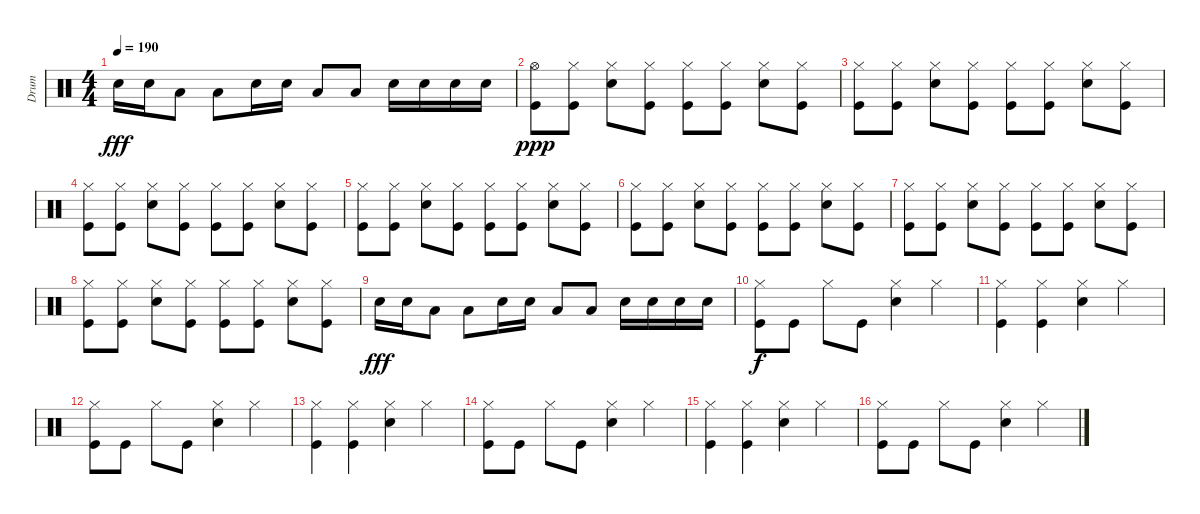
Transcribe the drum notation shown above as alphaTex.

\track ("Drum" "Drum") {instrument percussion}
\staff {score}
\articulation defaults
\ts (4 4)
\tempo 190
\clef neutral
\ks c "Snare (hit) 2".16{dy fff} "Snare (hit) 2".16 "Low Tom (hit)".8 "Low Tom (hit)".8 "Snare (hit) 2".16 "Snare (hit) 2".16 "Low Tom (hit)".8 "Low Tom (hit)".8 "Snare (hit) 2".16 "Snare (hit) 2".16 "Snare (hit) 2".16 "Snare (hit) 2".16
|
("Hi-Hat (open)" "Kick (hit)").8{dy ppp} ("Hi-Hat (closed)" "Kick (hit)").8 ("Hi-Hat (closed)" "Snare (hit) 2").8 ("Hi-Hat (closed)" "Kick (hit)").8 ("Hi-Hat (closed)" "Kick (hit)").8 ("Hi-Hat (closed)" "Kick (hit)").8 ("Hi-Hat (closed)" "Snare (hit) 2").8 ("Hi-Hat (closed)" "Kick (hit)").8 |
("Hi-Hat (closed)" "Kick (hit)").8 ("Hi-Hat (closed)" "Kick (hit)").8 ("Hi-Hat (closed)" "Snare (hit) 2").8 ("Hi-Hat (closed)" "Kick (hit)").8 ("Hi-Hat (closed)" "Kick (hit)").8 ("Hi-Hat (closed)" "Kick (hit)").8 ("Hi-Hat (closed)" "Snare (hit) 2").8 ("Hi-Hat (closed)" "Kick (hit)").8 |
("Hi-Hat (closed)" "Kick (hit)").8 ("Hi-Hat (closed)" "Kick (hit)").8 ("Hi-Hat (closed)" "Snare (hit) 2").8 ("Hi-Hat (closed)" "Kick (hit)").8 ("Hi-Hat (closed)" "Kick (hit)").8 ("Hi-Hat (closed)" "Kick (hit)").8 ("Hi-Hat (closed)" "Snare (hit) 2").8 ("Hi-Hat (closed)" "Kick (hit)").8 |
("Hi-Hat (closed)" "Kick (hit)").8 ("Hi-Hat (closed)" "Kick (hit)").8 ("Hi-Hat (closed)" "Snare (hit) 2").8 ("Hi-Hat (closed)" "Kick (hit)").8 ("Hi-Hat (closed)" "Kick (hit)").8 ("Hi-Hat (closed)" "Kick (hit)").8 ("Hi-Hat (closed)" "Snare (hit) 2").8 ("Hi-Hat (closed)" "Kick (hit)").8 |
("Hi-Hat (closed)" "Kick (hit)").8 ("Hi-Hat (closed)" "Kick (hit)").8 ("Hi-Hat (closed)" "Snare (hit) 2").8 ("Hi-Hat (closed)" "Kick (hit)").8 ("Hi-Hat (closed)" "Kick (hit)").8 ("Hi-Hat (closed)" "Kick (hit)").8 ("Hi-Hat (closed)" "Snare (hit) 2").8 ("Hi-Hat (closed)" "Kick (hit)").8 |
("Hi-Hat (closed)" "Kick (hit)").8 ("Hi-Hat (closed)" "Kick (hit)").8 ("Hi-Hat (closed)" "Snare (hit) 2").8 ("Hi-Hat (closed)" "Kick (hit)").8 ("Hi-Hat (closed)" "Kick (hit)").8 ("Hi-Hat (closed)" "Kick (hit)").8 ("Hi-Hat (closed)" "Snare (hit) 2").8 ("Hi-Hat (closed)" "Kick (hit)").8 |
("Hi-Hat (closed)" "Kick (hit)").8 ("Hi-Hat (closed)" "Kick (hit)").8 ("Hi-Hat (closed)" "Snare (hit) 2").8 ("Hi-Hat (closed)" "Kick (hit)").8 ("Hi-Hat (closed)" "Kick (hit)").8 ("Hi-Hat (closed)" "Kick (hit)").8 ("Hi-Hat (closed)" "Snare (hit) 2").8 ("Hi-Hat (closed)" "Kick (hit)").8 |
"Snare (hit) 2".16{dy fff} "Snare (hit) 2".16 "Low Tom (hit)".8 "Low Tom (hit)".8 "Snare (hit) 2".16 "Snare (hit) 2".16 "Low Tom (hit)".8 "Low Tom (hit)".8 "Snare (hit) 2".16 "Snare (hit) 2".16 "Snare (hit) 2".16 "Snare (hit) 2".16 |
("Kick (hit)" "Hi-Hat (closed)").8{dy f} "Kick (hit)".8 "Hi-Hat (closed)".8 "Kick (hit)".8 ("Snare (hit) 2" "Hi-Hat (closed)").4 "Hi-Hat (closed)".4 |
("Kick (hit)" "Hi-Hat (closed)").4 ("Hi-Hat (closed)" "Kick (hit)").4 ("Hi-Hat (closed)" "Snare (hit) 2").4 "Hi-Hat (closed)".4 |
("Kick (hit)" "Hi-Hat (closed)").8 "Kick (hit)".8 "Hi-Hat (closed)".8 "Kick (hit)".8 ("Snare (hit) 2" "Hi-Hat (closed)").4 "Hi-Hat (closed)".4 |
("Kick (hit)" "Hi-Hat (closed)").4 ("Hi-Hat (closed)" "Kick (hit)").4 ("Hi-Hat (closed)" "Snare (hit) 2").4 "Hi-Hat (closed)".4 |
("Kick (hit)" "Hi-Hat (closed)").8 "Kick (hit)".8 "Hi-Hat (closed)".8 "Kick (hit)".8 ("Snare (hit) 2" "Hi-Hat (closed)").4 "Hi-Hat (closed)".4 |
("Kick (hit)" "Hi-Hat (closed)").4 ("Hi-Hat (closed)" "Kick (hit)").4 ("Hi-Hat (closed)" "Snare (hit) 2").4 "Hi-Hat (closed)".4 |
("Kick (hit)" "Hi-Hat (closed)").8 "Kick (hit)".8 "Hi-Hat (closed)".8 "Kick (hit)".8 ("Snare (hit) 2" "Hi-Hat (closed)").4 "Hi-Hat (closed)".4
